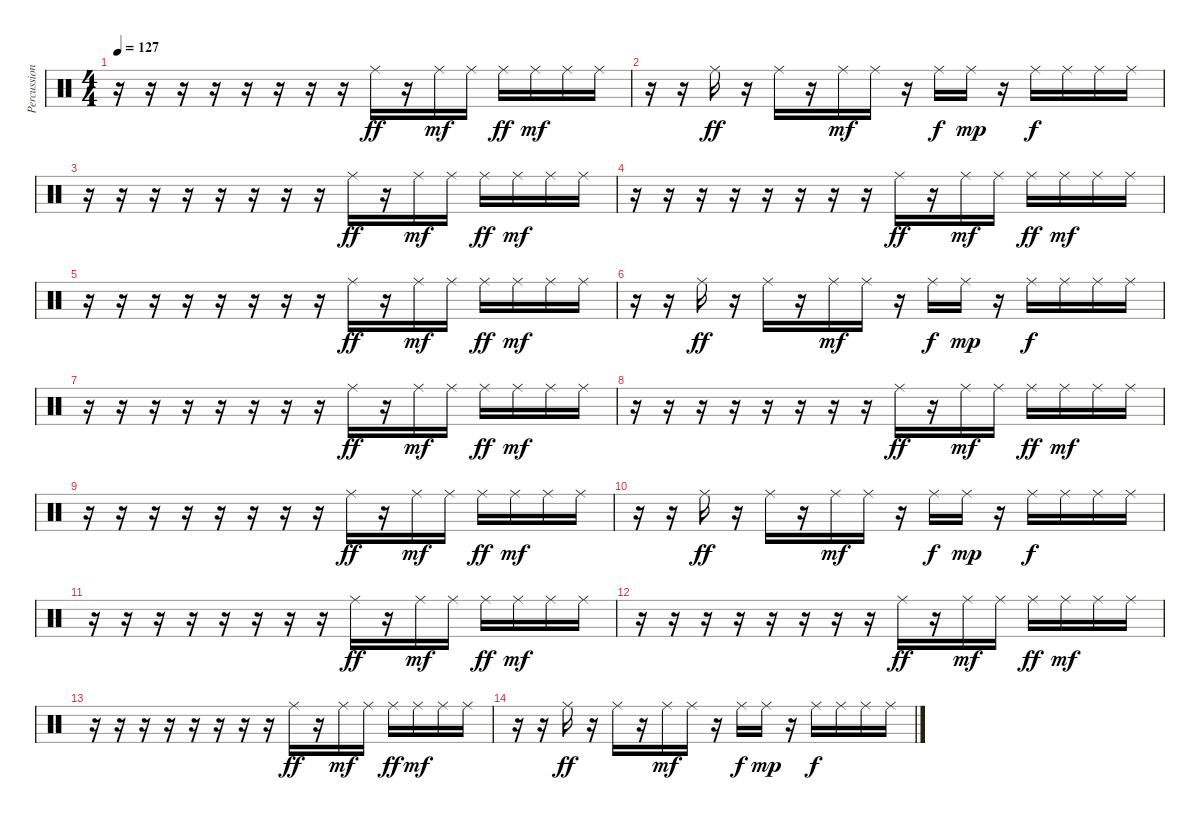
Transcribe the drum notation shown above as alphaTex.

\track ("Percussion" "Percussion") {instrument percussion}
\staff {score}
\articulation defaults
\ts (4 4)
\tempo 127
\clef neutral
\ks c
r.16{dy mf} r.16 r.16 r.16 r.16 r.16 r.16 r.16 "Ride (middle)".16{dy ff} r.16 "Ride (middle)".16{dy mf} "Ride (middle)".16 "Ride (middle)".16{dy ff} "Ride (middle)".16{dy mf} "Ride (middle)".16 "Ride (middle)".16 |
r.16 r.16 "Ride (middle)".16{dy ff} r.16 "Ride (middle)".16 r.16 "Ride (middle)".16{dy mf} "Ride (middle)".16 r.16 "Ride (middle)".16{dy f} "Ride (middle)".16{dy mp} r.16 "Ride (middle)".16{dy f} "Ride (middle)".16 "Ride (middle)".16 "Ride (middle)".16 |
r.16 r.16 r.16 r.16 r.16 r.16 r.16 r.16 "Ride (middle)".16{dy ff} r.16 "Ride (middle)".16{dy mf} "Ride (middle)".16 "Ride (middle)".16{dy ff} "Ride (middle)".16{dy mf} "Ride (middle)".16 "Ride (middle)".16 |
r.16 r.16 r.16 r.16 r.16 r.16 r.16 r.16 "Ride (middle)".16{dy ff} r.16 "Ride (middle)".16{dy mf} "Ride (middle)".16 "Ride (middle)".16{dy ff} "Ride (middle)".16{dy mf} "Ride (middle)".16 "Ride (middle)".16 |
r.16 r.16 r.16 r.16 r.16 r.16 r.16 r.16 "Ride (middle)".16{dy ff} r.16 "Ride (middle)".16{dy mf} "Ride (middle)".16 "Ride (middle)".16{dy ff} "Ride (middle)".16{dy mf} "Ride (middle)".16 "Ride (middle)".16 |
r.16 r.16 "Ride (middle)".16{dy ff} r.16 "Ride (middle)".16 r.16 "Ride (middle)".16{dy mf} "Ride (middle)".16 r.16 "Ride (middle)".16{dy f} "Ride (middle)".16{dy mp} r.16 "Ride (middle)".16{dy f} "Ride (middle)".16 "Ride (middle)".16 "Ride (middle)".16 |
r.16 r.16 r.16 r.16 r.16 r.16 r.16 r.16 "Ride (middle)".16{dy ff} r.16 "Ride (middle)".16{dy mf} "Ride (middle)".16 "Ride (middle)".16{dy ff} "Ride (middle)".16{dy mf} "Ride (middle)".16 "Ride (middle)".16 |
r.16 r.16 r.16 r.16 r.16 r.16 r.16 r.16 "Ride (middle)".16{dy ff} r.16 "Ride (middle)".16{dy mf} "Ride (middle)".16 "Ride (middle)".16{dy ff} "Ride (middle)".16{dy mf} "Ride (middle)".16 "Ride (middle)".16 |
r.16 r.16 r.16 r.16 r.16 r.16 r.16 r.16 "Ride (middle)".16{dy ff} r.16 "Ride (middle)".16{dy mf} "Ride (middle)".16 "Ride (middle)".16{dy ff} "Ride (middle)".16{dy mf} "Ride (middle)".16 "Ride (middle)".16 |
r.16 r.16 "Ride (middle)".16{dy ff} r.16 "Ride (middle)".16 r.16 "Ride (middle)".16{dy mf} "Ride (middle)".16 r.16 "Ride (middle)".16{dy f} "Ride (middle)".16{dy mp} r.16 "Ride (middle)".16{dy f} "Ride (middle)".16 "Ride (middle)".16 "Ride (middle)".16 |
r.16 r.16 r.16 r.16 r.16 r.16 r.16 r.16 "Ride (middle)".16{dy ff} r.16 "Ride (middle)".16{dy mf} "Ride (middle)".16 "Ride (middle)".16{dy ff} "Ride (middle)".16{dy mf} "Ride (middle)".16 "Ride (middle)".16 |
r.16 r.16 r.16 r.16 r.16 r.16 r.16 r.16 "Ride (middle)".16{dy ff} r.16 "Ride (middle)".16{dy mf} "Ride (middle)".16 "Ride (middle)".16{dy ff} "Ride (middle)".16{dy mf} "Ride (middle)".16 "Ride (middle)".16 |
r.16 r.16 r.16 r.16 r.16 r.16 r.16 r.16 "Ride (middle)".16{dy ff} r.16 "Ride (middle)".16{dy mf} "Ride (middle)".16 "Ride (middle)".16{dy ff} "Ride (middle)".16{dy mf} "Ride (middle)".16 "Ride (middle)".16 |
r.16 r.16 "Ride (middle)".16{dy ff} r.16 "Ride (middle)".16 r.16 "Ride (middle)".16{dy mf} "Ride (middle)".16 r.16 "Ride (middle)".16{dy f} "Ride (middle)".16{dy mp} r.16 "Ride (middle)".16{dy f} "Ride (middle)".16 "Ride (middle)".16 "Ride (middle)".16
